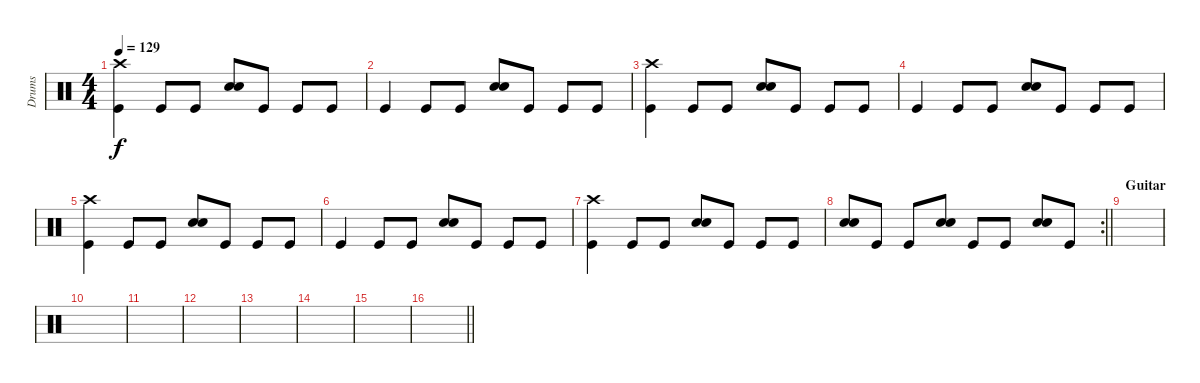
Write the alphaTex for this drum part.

\track ("Drums" "Drums") {instrument percussion}
\staff {score}
\articulation defaults
\ts (4 4)
\tempo 129
\clef neutral
\ks c
("Crash high (hit)" "Kick (hit)").4{dy f} "Kick (hit)".8 "Kick (hit)".8 ("Snare (hit) 2" "Electric Snare (hit)").8 "Kick (hit)".8 "Kick (hit)".8 "Kick (hit)".8 |
"Kick (hit)".4 "Kick (hit)".8 "Kick (hit)".8 ("Snare (hit) 2" "Electric Snare (hit)").8 "Kick (hit)".8 "Kick (hit)".8 "Kick (hit)".8 |
("Crash high (hit)" "Kick (hit)").4 "Kick (hit)".8 "Kick (hit)".8 ("Snare (hit) 2" "Electric Snare (hit)").8 "Kick (hit)".8 "Kick (hit)".8 "Kick (hit)".8 |
"Kick (hit)".4 "Kick (hit)".8 "Kick (hit)".8 ("Snare (hit) 2" "Electric Snare (hit)").8 "Kick (hit)".8 "Kick (hit)".8 "Kick (hit)".8 |
("Crash high (hit)" "Kick (hit)").4 "Kick (hit)".8 "Kick (hit)".8 ("Snare (hit) 2" "Electric Snare (hit)").8 "Kick (hit)".8 "Kick (hit)".8 "Kick (hit)".8 |
"Kick (hit)".4 "Kick (hit)".8 "Kick (hit)".8 ("Snare (hit) 2" "Electric Snare (hit)").8 "Kick (hit)".8 "Kick (hit)".8 "Kick (hit)".8 |
("Crash high (hit)" "Kick (hit)").4 "Kick (hit)".8 "Kick (hit)".8 ("Snare (hit) 2" "Electric Snare (hit)").8 "Kick (hit)".8 "Kick (hit)".8 "Kick (hit)".8 |
\rc 2
\barLineRight lightlight
("Snare (hit) 2" "Electric Snare (hit)").8 "Kick (hit)".8 "Kick (hit)".8 ("Snare (hit) 2" "Electric Snare (hit)").8 "Kick (hit)".8 "Kick (hit)".8 ("Snare (hit) 2" "Electric Snare (hit)").8 "Kick (hit)".8 |
\section ("" "Guitar")
|
|
|
|
|
|
|
\barLineRight lightlight
